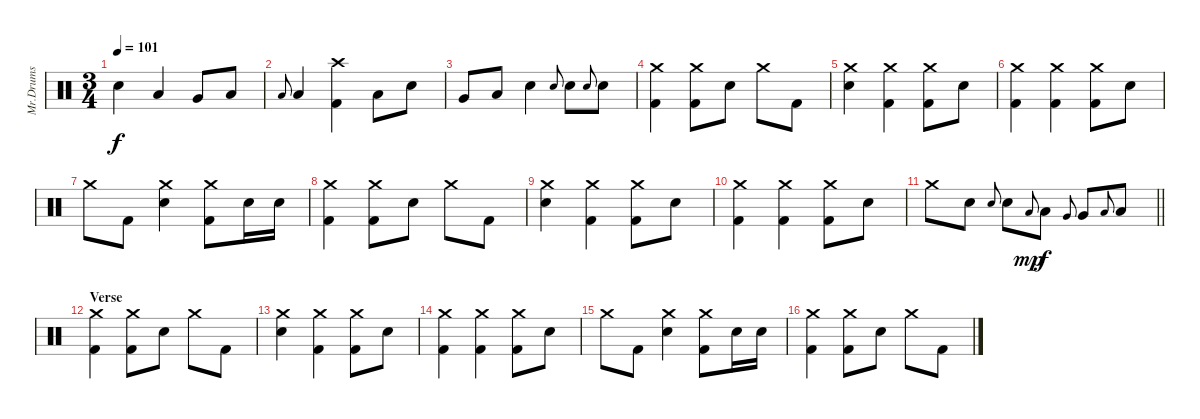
\track ("Mr.Drums" "Mr.Drums") {instrument percussion}
\staff {score}
\articulation defaults
\ts (3 4)
\tempo 101
\clef neutral
\ks c "Electric Snare (hit)".4{dy f} "Low Floor Tom (hit)".4 "Very Low Tom (hit)".8 "Low Floor Tom (hit)".8
|
"Low Floor Tom (hit)".8{gr onbeat} "Low Floor Tom (hit)".4 ("Crash high (hit)" "Kick (hit) 2").4 "Low Floor Tom (hit)".8 "Electric Snare (hit)".8 |
"Very Low Tom (hit)".8 "Low Floor Tom (hit)".8 "Electric Snare (hit)".4 "Electric Snare (hit)".8{gr onbeat} "Electric Snare (hit)".8 "Electric Snare (hit)".8{gr onbeat} "Electric Snare (hit)".8 |
("Crash medium (hit)" "Kick (hit) 2").4 ("Crash medium (hit)" "Kick (hit) 2").8 "Electric Snare (hit)".8 "Crash medium (hit)".8 "Kick (hit) 2".8 |
("Crash medium (hit)" "Electric Snare (hit)").4 ("Crash medium (hit)" "Kick (hit) 2").4 ("Crash medium (hit)" "Kick (hit) 2").8 "Electric Snare (hit)".8 |
("Crash medium (hit)" "Kick (hit) 2").4 ("Crash medium (hit)" "Kick (hit) 2").4 ("Crash medium (hit)" "Kick (hit) 2").8 "Electric Snare (hit)".8 |
"Crash medium (hit)".8 "Kick (hit) 2".8 ("Crash medium (hit)" "Electric Snare (hit)").4 ("Crash medium (hit)" "Kick (hit) 2").8 "Electric Snare (hit)".16 "Electric Snare (hit)".16 |
("Crash medium (hit)" "Kick (hit) 2").4 ("Crash medium (hit)" "Kick (hit) 2").8 "Electric Snare (hit)".8 "Crash medium (hit)".8 "Kick (hit) 2".8 |
("Crash medium (hit)" "Electric Snare (hit)").4 ("Crash medium (hit)" "Kick (hit) 2").4 ("Crash medium (hit)" "Kick (hit) 2").8 "Electric Snare (hit)".8 |
("Crash medium (hit)" "Kick (hit) 2").4 ("Crash medium (hit)" "Kick (hit) 2").4 ("Crash medium (hit)" "Kick (hit) 2").8 "Electric Snare (hit)".8 |
\barLineRight lightlight "Crash medium (hit)".8 "Electric Snare (hit)".8 "Electric Snare (hit)".8{gr onbeat} "Electric Snare (hit)".8 "Low Tom (hit)".8{gr onbeat dy mp} "Low Tom (hit)".8{dy f} "Very Low Tom (hit)".8{gr onbeat} "Very Low Tom (hit)".8 "Low Floor Tom (hit)".8{gr onbeat} "Low Floor Tom (hit)".8
|
\section ("" "Verse")
("Crash medium (hit)" "Kick (hit) 2").4 ("Crash medium (hit)" "Kick (hit) 2").8 "Electric Snare (hit)".8 "Crash medium (hit)".8 "Kick (hit) 2".8 |
("Crash medium (hit)" "Electric Snare (hit)").4 ("Crash medium (hit)" "Kick (hit) 2").4 ("Crash medium (hit)" "Kick (hit) 2").8 "Electric Snare (hit)".8 |
("Crash medium (hit)" "Kick (hit) 2").4 ("Crash medium (hit)" "Kick (hit) 2").4 ("Crash medium (hit)" "Kick (hit) 2").8 "Electric Snare (hit)".8 |
"Crash medium (hit)".8 "Kick (hit) 2".8 ("Crash medium (hit)" "Electric Snare (hit)").4 ("Crash medium (hit)" "Kick (hit) 2").8 "Electric Snare (hit)".16 "Electric Snare (hit)".16 |
("Crash medium (hit)" "Kick (hit) 2").4 ("Crash medium (hit)" "Kick (hit) 2").8 "Electric Snare (hit)".8 "Crash medium (hit)".8 "Kick (hit) 2".8
